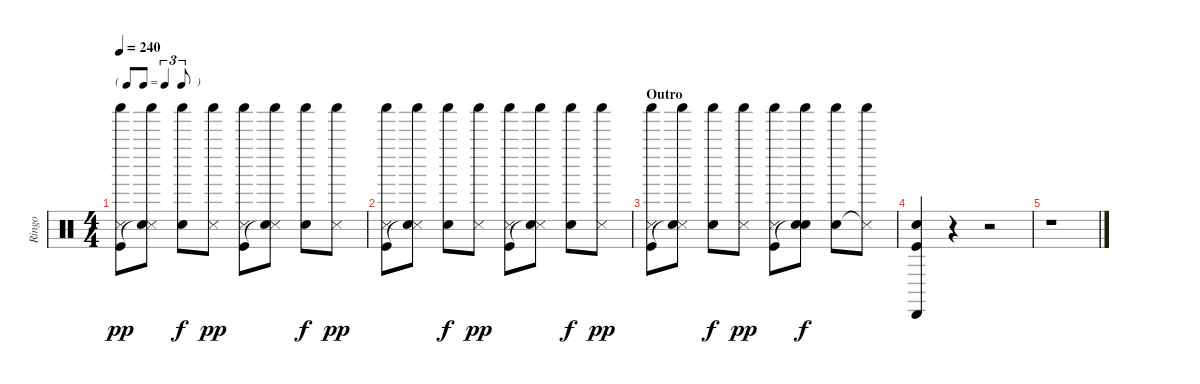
\track ("Ringo" "Ringo") {instrument percussion}
\staff {score}
\articulation defaults
\ts (4 4)
\tf triplet8th
\tempo 240
\clef neutral
\ks c
("Shaker (hit)" "Snare (side stick) 3" "Kick (hit)").8{dy pp} ("Shaker (hit)" "Snare (side stick) 3" "Snare (hit)"{t}).8 ("Shaker (hit)" "Snare (hit) 2").8{dy f} ("Shaker (hit)" "Snare (side stick) 3").8{dy pp} ("Shaker (hit)" "Snare (side stick) 3" "Kick (hit)").8 ("Shaker (hit)" "Snare (side stick) 3" "Snare (hit)"{t}).8 ("Shaker (hit)" "Snare (hit) 2").8{dy f} ("Shaker (hit)" "Snare (side stick) 3").8{dy pp} |
("Shaker (hit)" "Snare (side stick) 3" "Kick (hit)").8 ("Shaker (hit)" "Snare (side stick) 3" "Snare (hit)"{t}).8 ("Shaker (hit)" "Snare (hit) 2").8{dy f} ("Shaker (hit)" "Snare (side stick) 3").8{dy pp} ("Shaker (hit)" "Snare (side stick) 3" "Kick (hit)").8 ("Shaker (hit)" "Snare (side stick) 3" "Snare (hit)"{t}).8 ("Shaker (hit)" "Snare (hit) 2").8{dy f} ("Shaker (hit)" "Snare (side stick) 3").8{dy pp} |
\section ("" "Outro")
("Shaker (hit)" "Snare (side stick) 3" "Kick (hit)").8 ("Shaker (hit)" "Snare (side stick) 3" "Snare (hit)"{t}).8 ("Shaker (hit)" "Snare (hit) 2").8{dy f} ("Shaker (hit)" "Snare (side stick) 3").8{dy pp} ("Shaker (hit)" "Snare (side stick) 3" "Kick (hit)").8 ("Shaker (hit)" "Snare (hit) 2" "Snare (hit)"{t}).8{dy f} ("Shaker (hit)" "Snare (hit) 2").8 ("Shaker (hit)" "Snare (side stick) 3"{t}).8 |
("Cabasa (hit)" "Snare (hit) 2" "Kick (hit)").4 r.4 r.2 |
r.1
